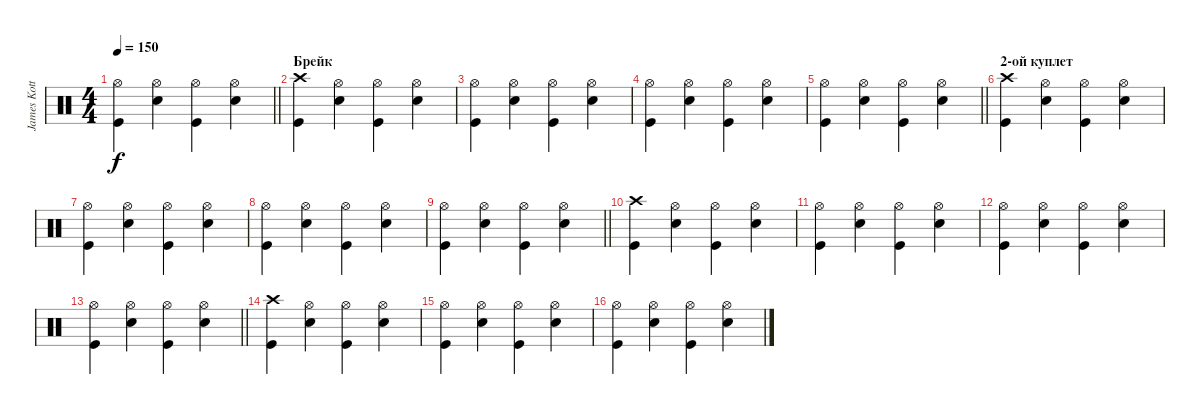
\track ("James Kottak" "James Kott") {instrument percussion}
\staff {score}
\articulation defaults
\ts (4 4)
\tempo 150
\clef neutral
\barLineRight lightlight
\ks c
("Hi-Hat (open)" "Kick (hit)").4{dy f} ("Hi-Hat (open)" "Snare (hit) 2").4 ("Hi-Hat (open)" "Kick (hit)").4 ("Hi-Hat (open)" "Snare (hit) 2").4 |
\section ("" "Брейк")
("Crash high (hit)" "Kick (hit)").4 ("Hi-Hat (open)" "Snare (hit) 2").4 ("Hi-Hat (open)" "Kick (hit)").4 ("Hi-Hat (open)" "Snare (hit) 2").4 |
("Hi-Hat (open)" "Kick (hit)").4 ("Hi-Hat (open)" "Snare (hit) 2").4 ("Hi-Hat (open)" "Kick (hit)").4 ("Hi-Hat (open)" "Snare (hit) 2").4 |
("Hi-Hat (open)" "Kick (hit)").4 ("Hi-Hat (open)" "Snare (hit) 2").4 ("Hi-Hat (open)" "Kick (hit)").4 ("Hi-Hat (open)" "Snare (hit) 2").4 |
\barLineRight lightlight
("Hi-Hat (open)" "Kick (hit)").4 ("Hi-Hat (open)" "Snare (hit) 2").4 ("Hi-Hat (open)" "Kick (hit)").4 ("Hi-Hat (open)" "Snare (hit) 2").4 |
\section ("" "2-ой куплет")
("Crash high (hit)" "Kick (hit)").4 ("Hi-Hat (open)" "Snare (hit) 2").4 ("Hi-Hat (open)" "Kick (hit)").4 ("Hi-Hat (open)" "Snare (hit) 2").4 |
("Hi-Hat (open)" "Kick (hit)").4 ("Hi-Hat (open)" "Snare (hit) 2").4 ("Hi-Hat (open)" "Kick (hit)").4 ("Hi-Hat (open)" "Snare (hit) 2").4 |
("Hi-Hat (open)" "Kick (hit)").4 ("Hi-Hat (open)" "Snare (hit) 2").4 ("Hi-Hat (open)" "Kick (hit)").4 ("Hi-Hat (open)" "Snare (hit) 2").4 |
\barLineRight lightlight
("Hi-Hat (open)" "Kick (hit)").4 ("Hi-Hat (open)" "Snare (hit) 2").4 ("Hi-Hat (open)" "Kick (hit)").4 ("Hi-Hat (open)" "Snare (hit) 2").4 |
("Crash high (hit)" "Kick (hit)").4 ("Hi-Hat (open)" "Snare (hit) 2").4 ("Hi-Hat (open)" "Kick (hit)").4 ("Hi-Hat (open)" "Snare (hit) 2").4 |
("Hi-Hat (open)" "Kick (hit)").4 ("Hi-Hat (open)" "Snare (hit) 2").4 ("Hi-Hat (open)" "Kick (hit)").4 ("Hi-Hat (open)" "Snare (hit) 2").4 |
("Hi-Hat (open)" "Kick (hit)").4 ("Hi-Hat (open)" "Snare (hit) 2").4 ("Hi-Hat (open)" "Kick (hit)").4 ("Hi-Hat (open)" "Snare (hit) 2").4 |
\barLineRight lightlight
("Hi-Hat (open)" "Kick (hit)").4 ("Hi-Hat (open)" "Snare (hit) 2").4 ("Hi-Hat (open)" "Kick (hit)").4 ("Hi-Hat (open)" "Snare (hit) 2").4 |
("Crash high (hit)" "Kick (hit)").4 ("Hi-Hat (open)" "Snare (hit) 2").4 ("Hi-Hat (open)" "Kick (hit)").4 ("Hi-Hat (open)" "Snare (hit) 2").4 |
("Hi-Hat (open)" "Kick (hit)").4 ("Hi-Hat (open)" "Snare (hit) 2").4 ("Hi-Hat (open)" "Kick (hit)").4 ("Hi-Hat (open)" "Snare (hit) 2").4 |
("Hi-Hat (open)" "Kick (hit)").4 ("Hi-Hat (open)" "Snare (hit) 2").4 ("Hi-Hat (open)" "Kick (hit)").4 ("Hi-Hat (open)" "Snare (hit) 2").4
